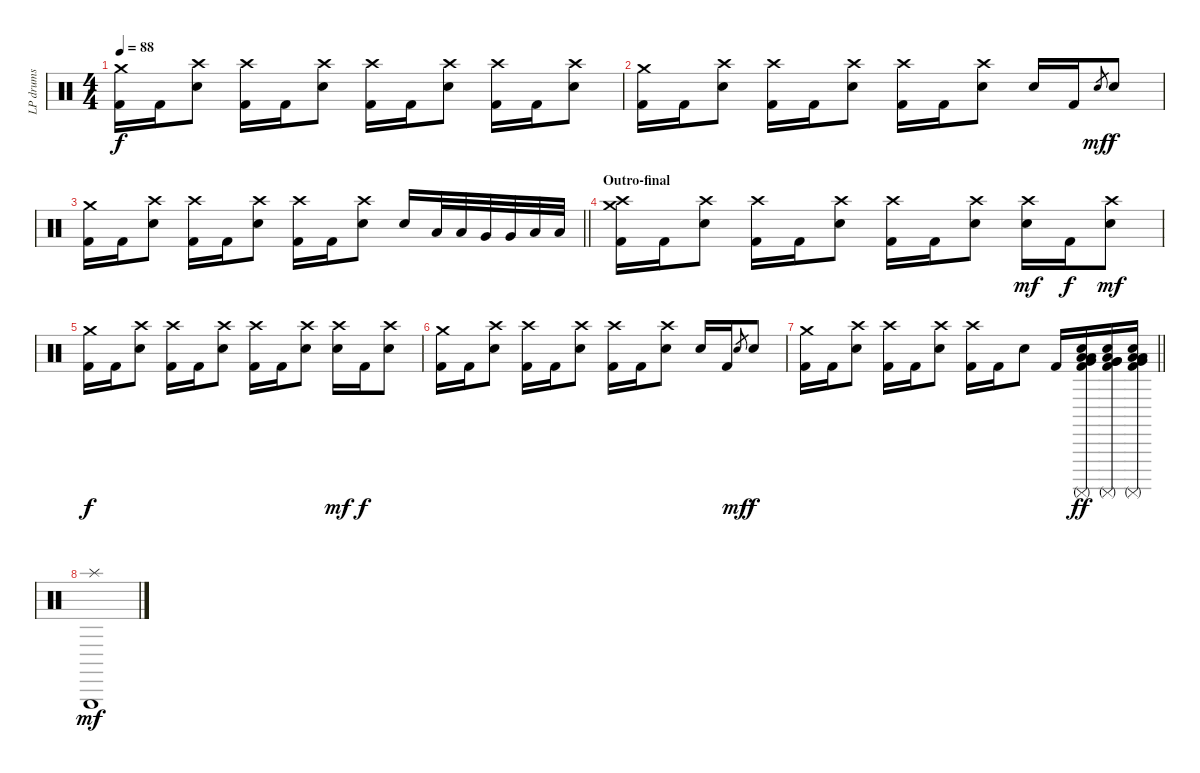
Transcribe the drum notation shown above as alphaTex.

\track ("LP drums" "LP drums") {instrument percussion}
\staff {score}
\articulation defaults
\ts (4 4)
\tempo 88
\clef neutral
\ks c
("Crash medium (hit)" "Kick (hit) 2").16{dy f} "Kick (hit) 2".16 ("Crash high (hit)" "Electric Snare (hit)").8 ("Crash high (hit)" "Kick (hit) 2").16 "Kick (hit) 2".16 ("Crash high (hit)" "Electric Snare (hit)").8 ("Crash high (hit)" "Kick (hit) 2").16 "Kick (hit) 2".16 ("Crash high (hit)" "Electric Snare (hit)").8 ("Crash high (hit)" "Kick (hit) 2").16 "Kick (hit) 2".16 ("Crash high (hit)" "Electric Snare (hit)").8 |
("Crash medium (hit)" "Kick (hit) 2").16 "Kick (hit) 2".16 ("Crash high (hit)" "Electric Snare (hit)").8 ("Crash high (hit)" "Kick (hit) 2").16 "Kick (hit) 2".16 ("Crash high (hit)" "Electric Snare (hit)").8 ("Crash high (hit)" "Kick (hit) 2").16 "Kick (hit) 2".16 ("Crash high (hit)" "Electric Snare (hit)").8 "Electric Snare (hit)".16 "Kick (hit) 2".16 "Electric Snare (hit)".8{gr dy mf} "Electric Snare (hit)".8{dy f} |
\barLineRight lightlight
("Crash medium (hit)" "Kick (hit) 2").16 "Kick (hit) 2".16 ("Crash high (hit)" "Electric Snare (hit)").8 ("Crash high (hit)" "Kick (hit) 2").16 "Kick (hit) 2".16 ("Crash high (hit)" "Electric Snare (hit)").8 ("Crash high (hit)" "Kick (hit) 2").16 "Kick (hit) 2".16 ("Crash high (hit)" "Electric Snare (hit)").8 "Electric Snare (hit)".16 "Low Tom (hit)".32 "Low Tom (hit)".32 "Very Low Tom (hit)".32 "Very Low Tom (hit)".32 "Low Floor Tom (hit)".32 "Low Floor Tom (hit)".32 |
\section ("" "Outro-final")
("Crash high (hit)" "Crash medium (hit)" "Kick (hit) 2").16 "Kick (hit) 2".16 ("Crash high (hit)" "Electric Snare (hit)").8 ("Crash high (hit)" "Kick (hit) 2").16 "Kick (hit) 2".16 ("Crash high (hit)" "Electric Snare (hit)").8 ("Crash high (hit)" "Kick (hit) 2").16 "Kick (hit) 2".16 ("Crash high (hit)" "Electric Snare (hit)").8 ("Crash high (hit)" "Electric Snare (hit)").16{dy mf} "Kick (hit) 2".16{dy f} ("Crash high (hit)" "Electric Snare (hit)").8{dy mf} |
("Crash medium (hit)" "Kick (hit) 2").16{dy f} "Kick (hit) 2".16 ("Crash high (hit)" "Electric Snare (hit)").8 ("Crash high (hit)" "Kick (hit) 2").16 "Kick (hit) 2".16 ("Crash high (hit)" "Electric Snare (hit)").8 ("Crash high (hit)" "Kick (hit) 2").16 "Kick (hit) 2".16 ("Crash high (hit)" "Electric Snare (hit)").8 ("Crash high (hit)" "Electric Snare (hit)").16{dy mf} "Kick (hit) 2".16{dy f} ("Crash high (hit)" "Electric Snare (hit)").8 |
("Crash medium (hit)" "Kick (hit) 2").16 "Kick (hit) 2".16 ("Crash high (hit)" "Electric Snare (hit)").8 ("Crash high (hit)" "Kick (hit) 2").16 "Kick (hit) 2".16 ("Crash high (hit)" "Electric Snare (hit)").8 ("Crash high (hit)" "Kick (hit) 2").16 "Kick (hit) 2".16 ("Crash high (hit)" "Electric Snare (hit)").8 "Electric Snare (hit)".16 "Kick (hit) 2".16 "Electric Snare (hit)".8{gr dy mf} "Electric Snare (hit)".8{dy f} |
\barLineRight lightlight
("Crash medium (hit)" "Kick (hit) 2").16 "Kick (hit) 2".16 ("Crash high (hit)" "Electric Snare (hit)").8 ("Crash high (hit)" "Kick (hit) 2").16 "Kick (hit) 2".16 ("Crash high (hit)" "Electric Snare (hit)").8 ("Crash high (hit)" "Kick (hit) 2").16 "Kick (hit) 2".16 "Electric Snare (hit)".8 "Kick (hit) 2".16 ("Surdo (mute)" "Very Low Tom (hit)" "Low Floor Tom (hit)" "Kick (hit) 2" "Low Tom (hit)" "Electric Snare (hit)").16{dy ff} ("Surdo (mute)" "Very Low Tom (hit)" "Low Floor Tom (hit)" "Kick (hit) 2" "Very Low Tom (hit)" "Electric Snare (hit)").16 ("Surdo (mute)" "Very Low Tom (hit)" "Low Floor Tom (hit)" "Kick (hit) 2" "Low Floor Tom (hit)" "Electric Snare (hit)").16 |
("Splash (hit)" "Triangle (hit)").1{dy mf}
